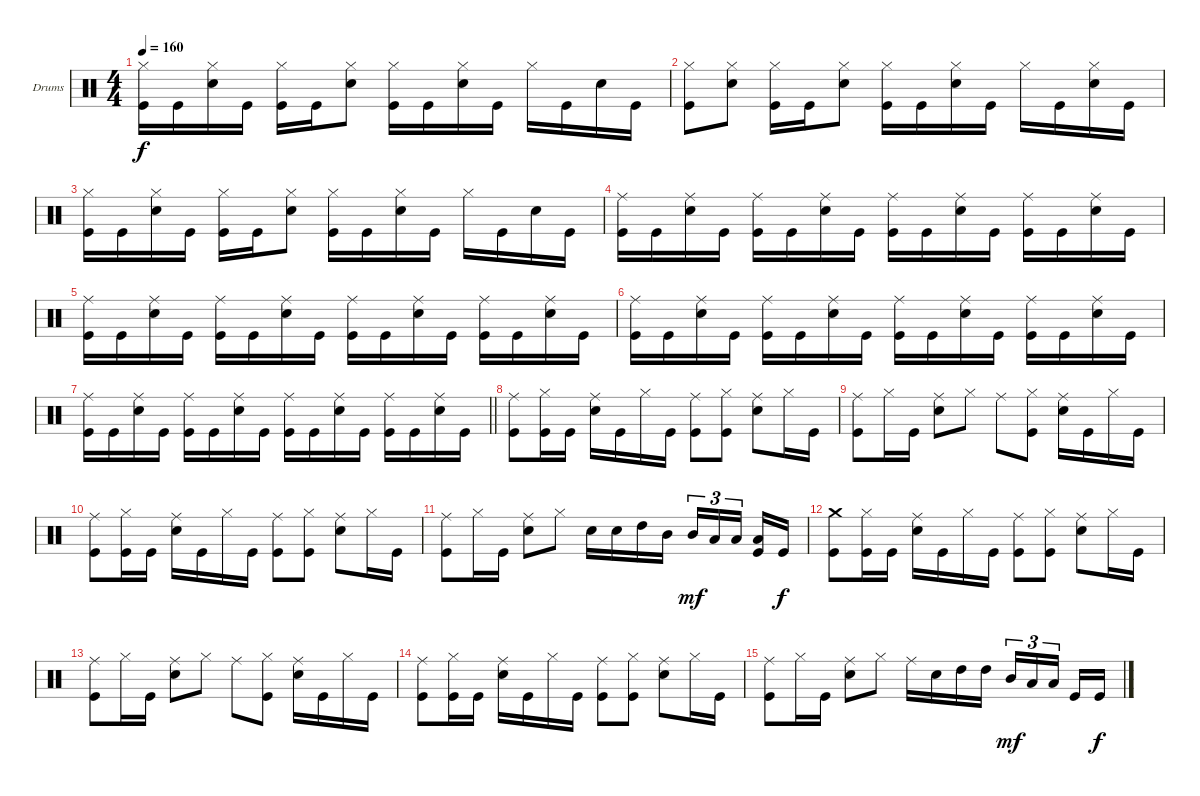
\defaultSystemsLayout 4
\bracketExtendMode groupsimilarinstruments
\firstSystemTrackNameOrientation horizontal
\otherSystemsTrackNameOrientation horizontal
\track ("Drums" "Drums") {instrument percussion}
\staff {score}
\articulation defaults
\ts (4 4)
\tempo 160
\clef neutral
\ks aminor
("Kick (hit)" "Hi-Hat (closed)").16{dy f} "Kick (hit)".16 ("Snare (hit) 2" "Hi-Hat (closed)").16 "Kick (hit)".16 ("Kick (hit)" "Hi-Hat (closed)").16 "Kick (hit)".16 ("Snare (hit) 2" "Hi-Hat (closed)").8 ("Kick (hit)" "Hi-Hat (closed)").16 "Kick (hit)".16 ("Snare (hit) 2" "Hi-Hat (closed)").16 "Kick (hit)".16 "Hi-Hat (closed)".16 "Kick (hit)".16 "Snare (hit) 2".16 "Kick (hit)".16 |
("Kick (hit)" "Hi-Hat (closed)").8 ("Snare (hit) 2" "Hi-Hat (closed)").8 ("Kick (hit)" "Hi-Hat (closed)").16 "Kick (hit)".16 ("Snare (hit) 2" "Hi-Hat (closed)").8 ("Kick (hit)" "Hi-Hat (closed)").16 "Kick (hit)".16 ("Snare (hit) 2" "Hi-Hat (closed)").16 "Kick (hit)".16 "Hi-Hat (closed)".16 "Kick (hit)".16 ("Snare (hit) 2" "Hi-Hat (closed)").16 "Kick (hit)".16 |
("Kick (hit)" "Hi-Hat (closed)").16 "Kick (hit)".16 ("Snare (hit) 2" "Hi-Hat (closed)").16 "Kick (hit)".16 ("Kick (hit)" "Hi-Hat (closed)").16 "Kick (hit)".16 ("Snare (hit) 2" "Hi-Hat (closed)").8 ("Kick (hit)" "Hi-Hat (closed)").16 "Kick (hit)".16 ("Snare (hit) 2" "Hi-Hat (closed)").16 "Kick (hit)".16 "Hi-Hat (closed)".16 "Kick (hit)".16 "Snare (hit) 2".16 "Kick (hit)".16 |
("Kick (hit)" "Ride (middle)").16 "Kick (hit)".16 ("Snare (hit) 2" "Ride (middle)").16 "Kick (hit)".16 ("Kick (hit)" "Ride (middle)").16 "Kick (hit)".16 ("Snare (hit) 2" "Ride (middle)").16 "Kick (hit)".16 ("Kick (hit)" "Ride (middle)").16 "Kick (hit)".16 ("Snare (hit) 2" "Ride (middle)").16 "Kick (hit)".16 ("Kick (hit)" "Ride (middle)").16 "Kick (hit)".16 ("Snare (hit) 2" "Ride (middle)").16 "Kick (hit)".16 |
("Kick (hit)" "Ride (middle)").16 "Kick (hit)".16 ("Snare (hit) 2" "Ride (middle)").16 "Kick (hit)".16 ("Kick (hit)" "Ride (middle)").16 "Kick (hit)".16 ("Snare (hit) 2" "Ride (middle)").16 "Kick (hit)".16 ("Kick (hit)" "Ride (middle)").16 "Kick (hit)".16 ("Snare (hit) 2" "Ride (middle)").16 "Kick (hit)".16 ("Kick (hit)" "Ride (middle)").16 "Kick (hit)".16 ("Snare (hit) 2" "Ride (middle)").16 "Kick (hit)".16 |
("Kick (hit)" "Ride (middle)").16 "Kick (hit)".16 ("Snare (hit) 2" "Ride (middle)").16 "Kick (hit)".16 ("Kick (hit)" "Ride (middle)").16 "Kick (hit)".16 ("Snare (hit) 2" "Ride (middle)").16 "Kick (hit)".16 ("Kick (hit)" "Ride (middle)").16 "Kick (hit)".16 ("Snare (hit) 2" "Ride (middle)").16 "Kick (hit)".16 ("Kick (hit)" "Ride (middle)").16 "Kick (hit)".16 ("Snare (hit) 2" "Ride (middle)").16 "Kick (hit)".16 |
\barLineRight lightlight
("Kick (hit)" "Ride (middle)").16 "Kick (hit)".16 ("Snare (hit) 2" "Ride (middle)").16 "Kick (hit)".16 ("Kick (hit)" "Ride (middle)").16 "Kick (hit)".16 ("Snare (hit) 2" "Ride (middle)").16 "Kick (hit)".16 ("Kick (hit)" "Ride (middle)").16 "Kick (hit)".16 ("Snare (hit) 2" "Ride (middle)").16 "Kick (hit)".16 ("Kick (hit)" "Ride (middle)").16 "Kick (hit)".16 ("Snare (hit) 2" "Ride (middle)").16 "Kick (hit)".16 |
("Kick (hit)" "Ride (middle)").8 ("Kick (hit)" "Hi-Hat (closed)").16 "Kick (hit)".16 ("Snare (hit) 2" "Ride (middle)").16 "Kick (hit)".16 "Hi-Hat (closed)".16 "Kick (hit)".16 ("Kick (hit)" "Ride (middle)").8 ("Kick (hit)" "Hi-Hat (closed)").8 ("Snare (hit) 2" "Ride (middle)").8 "Hi-Hat (closed)".16 "Kick (hit)".16 |
("Kick (hit)" "Ride (middle)").8 "Hi-Hat (closed)".16 "Kick (hit)".16 ("Snare (hit) 2" "Ride (middle)").8 "Hi-Hat (closed)".8 "Ride (middle)".8 ("Kick (hit)" "Hi-Hat (closed)").8 ("Snare (hit) 2" "Ride (middle)").16 "Kick (hit)".16 "Hi-Hat (closed)".16 "Kick (hit)".16 |
("Kick (hit)" "Ride (middle)").8 ("Kick (hit)" "Hi-Hat (closed)").16 "Kick (hit)".16 ("Snare (hit) 2" "Ride (middle)").16 "Kick (hit)".16 "Hi-Hat (closed)".16 "Kick (hit)".16 ("Kick (hit)" "Ride (middle)").8 ("Kick (hit)" "Hi-Hat (closed)").8 ("Snare (hit) 2" "Ride (middle)").8 "Hi-Hat (closed)".16 "Kick (hit)".16 |
("Kick (hit)" "Ride (middle)").8 "Hi-Hat (closed)".16 "Kick (hit)".16 ("Snare (hit) 2" "Ride (middle)").8 "Hi-Hat (closed)".8 "Snare (hit) 2".16 "Snare (hit) 2".16 "High Tom (hit)".16 "Mid Tom (hit)".16 "Mid Tom (hit)".16{tu (3 2) dy mf} "Low Tom (hit)".16{tu (3 2)} "Low Tom (hit)".16{tu (3 2)} ("Kick (hit)" "Low Tom (hit)").16 "Kick (hit)".16{dy f} |
("Kick (hit)" "Crash medium (hit)").8 ("Kick (hit)" "Hi-Hat (closed)").16 "Kick (hit)".16 ("Snare (hit) 2" "Ride (middle)").16 "Kick (hit)".16 "Hi-Hat (closed)".16 "Kick (hit)".16 ("Kick (hit)" "Ride (middle)").8 ("Kick (hit)" "Hi-Hat (closed)").8 ("Snare (hit) 2" "Ride (middle)").8 "Hi-Hat (closed)".16 "Kick (hit)".16 |
("Kick (hit)" "Ride (middle)").8 "Hi-Hat (closed)".16 "Kick (hit)".16 ("Snare (hit) 2" "Ride (middle)").8 "Hi-Hat (closed)".8 "Ride (middle)".8 ("Kick (hit)" "Hi-Hat (closed)").8 ("Snare (hit) 2" "Ride (middle)").16 "Kick (hit)".16 "Hi-Hat (closed)".16 "Kick (hit)".16 |
("Kick (hit)" "Ride (middle)").8 ("Kick (hit)" "Hi-Hat (closed)").16 "Kick (hit)".16 ("Snare (hit) 2" "Ride (middle)").16 "Kick (hit)".16 "Hi-Hat (closed)".16 "Kick (hit)".16 ("Kick (hit)" "Ride (middle)").8 ("Kick (hit)" "Hi-Hat (closed)").8 ("Snare (hit) 2" "Ride (middle)").8 "Hi-Hat (closed)".16 "Kick (hit)".16 |
("Kick (hit)" "Ride (middle)").8 "Hi-Hat (closed)".16 "Kick (hit)".16 ("Snare (hit) 2" "Ride (middle)").8 "Hi-Hat (closed)".8 "Ride (middle)".16 "Snare (hit) 2".16 "High Tom (hit)".16 "High Tom (hit)".16 "Mid Tom (hit)".16{tu (3 2) dy mf} "Low Tom (hit)".16{tu (3 2)} "Low Tom (hit)".16{tu (3 2)} "Kick (hit)".16 "Kick (hit)".16{dy f}
